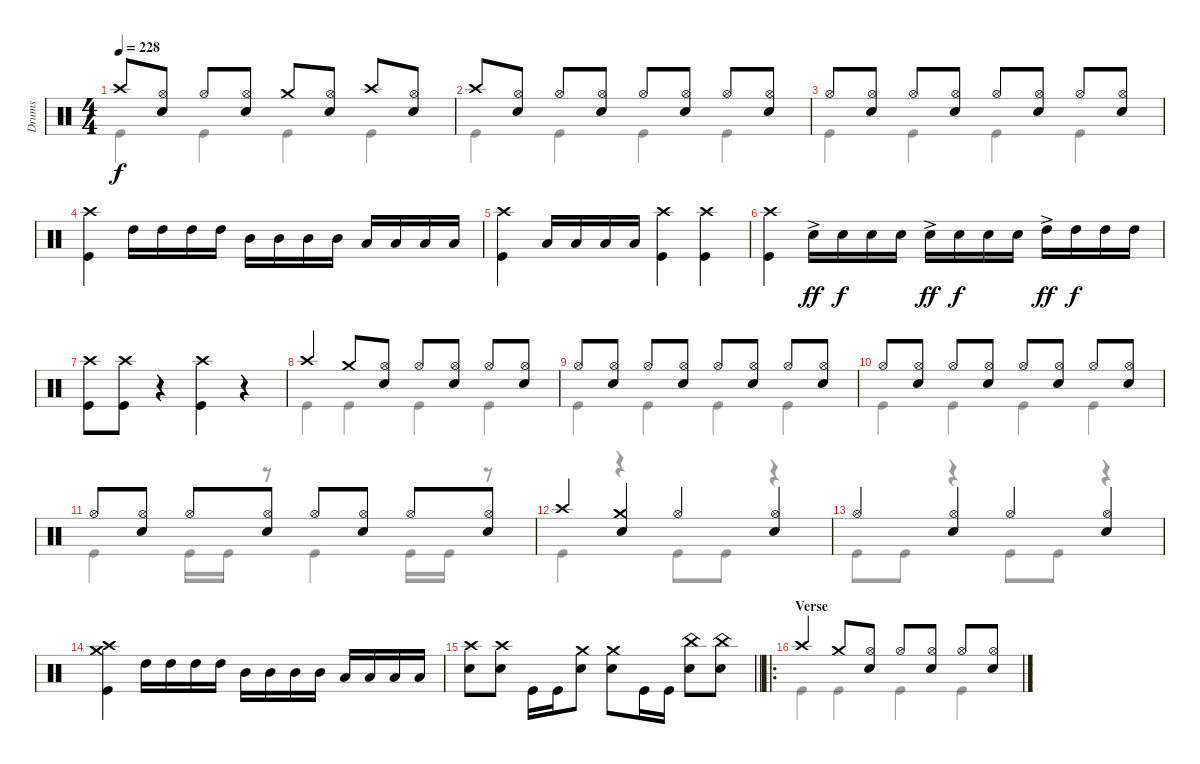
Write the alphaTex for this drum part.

\track ("Drums" "Drums") {instrument percussion}
\staff {score}
\articulation defaults
\voice
\ts (4 4)
\tempo 228
\clef neutral
\ks c "Crash high (hit)".8{dy f}
("Hi-Hat (open)" "Snare (hit) 2").8 "Hi-Hat (open)".8 ("Hi-Hat (open)" "Snare (hit) 2").8 "Crash medium (hit)".8 ("Hi-Hat (open)" "Snare (hit) 2").8 "Crash high (hit)".8 ("Hi-Hat (open)" "Snare (hit) 2").8 |
"Crash high (hit)".8 ("Hi-Hat (open)" "Snare (hit) 2").8 "Hi-Hat (open)".8 ("Hi-Hat (open)" "Snare (hit) 2").8 "Hi-Hat (open)".8 ("Hi-Hat (open)" "Snare (hit) 2").8 "Hi-Hat (open)".8 ("Hi-Hat (open)" "Snare (hit) 2").8 |
"Hi-Hat (open)".8 ("Hi-Hat (open)" "Snare (hit) 2").8 "Hi-Hat (open)".8 ("Hi-Hat (open)" "Snare (hit) 2").8 "Hi-Hat (open)".8 ("Hi-Hat (open)" "Snare (hit) 2").8 "Hi-Hat (open)".8 ("Hi-Hat (open)" "Snare (hit) 2").8 |
("Crash high (hit)" "Kick (hit)").4 "High Tom (hit)".16 "High Tom (hit)".16 "High Tom (hit)".16 "High Tom (hit)".16 "Mid Tom (hit)".16 "Mid Tom (hit)".16 "Mid Tom (hit)".16 "Mid Tom (hit)".16 "Low Floor Tom (hit)".16 "Low Floor Tom (hit)".16 "Low Floor Tom (hit)".16 "Low Floor Tom (hit)".16 |
("Crash high (hit)" "Kick (hit)").4 "Low Floor Tom (hit)".16 "Low Floor Tom (hit)".16 "Low Floor Tom (hit)".16 "Low Floor Tom (hit)".16 ("Crash high (hit)" "Kick (hit)").4 ("Crash high (hit)" "Kick (hit)").4 |
("Crash high (hit)" "Kick (hit)").4 "Snare (hit) 2"{ac}.16{dy ff} "Snare (hit) 2".16{dy f} "Snare (hit) 2".16 "Snare (hit) 2".16 "Snare (hit) 2"{ac}.16{dy ff} "Snare (hit) 2".16{dy f} "Snare (hit) 2".16 "Snare (hit) 2".16 "High Tom (hit)"{ac}.16{dy ff} "High Tom (hit)".16{dy f} "High Tom (hit)".16 "High Tom (hit)".16 |
("Crash high (hit)" "Kick (hit)").8 ("Crash high (hit)" "Kick (hit)").8 r.4 ("Crash high (hit)" "Kick (hit)").4 r.4 |
"Crash high (hit)".4 "Crash medium (hit)".8 ("Hi-Hat (open)" "Snare (hit) 2").8 "Hi-Hat (open)".8 ("Hi-Hat (open)" "Snare (hit) 2").8 "Hi-Hat (open)".8 ("Hi-Hat (open)" "Snare (hit) 2").8 |
"Hi-Hat (open)".8 ("Hi-Hat (open)" "Snare (hit) 2").8 "Hi-Hat (open)".8 ("Hi-Hat (open)" "Snare (hit) 2").8 "Hi-Hat (open)".8 ("Hi-Hat (open)" "Snare (hit) 2").8 "Hi-Hat (open)".8 ("Hi-Hat (open)" "Snare (hit) 2").8 |
"Hi-Hat (open)".8 ("Hi-Hat (open)" "Snare (hit) 2").8 "Hi-Hat (open)".8 ("Hi-Hat (open)" "Snare (hit) 2").8 "Hi-Hat (open)".8 ("Hi-Hat (open)" "Snare (hit) 2").8 "Hi-Hat (open)".8 ("Hi-Hat (open)" "Snare (hit) 2").8 |
"Hi-Hat (open)".8 ("Hi-Hat (open)" "Snare (hit) 2").8 "Hi-Hat (open)".8 ("Hi-Hat (open)" "Snare (hit) 2").8 "Hi-Hat (open)".8 ("Hi-Hat (open)" "Snare (hit) 2").8 "Hi-Hat (open)".8 ("Hi-Hat (open)" "Snare (hit) 2").8 |
"Crash high (hit)".4 ("Crash medium (hit)" "Snare (hit) 2").4 "Hi-Hat (open)".4 ("Hi-Hat (open)" "Snare (hit) 2").4 |
"Hi-Hat (open)".4 ("Hi-Hat (open)" "Snare (hit) 2").4 "Hi-Hat (open)".4 ("Hi-Hat (open)" "Snare (hit) 2").4 |
("Crash high (hit)" "Crash medium (hit)" "Kick (hit)").4 "High Tom (hit)".16 "High Tom (hit)".16 "High Tom (hit)".16 "High Tom (hit)".16 "Mid Tom (hit)".16 "Mid Tom (hit)".16 "Mid Tom (hit)".16 "Mid Tom (hit)".16 "Low Floor Tom (hit)".16 "Low Floor Tom (hit)".16 "Low Floor Tom (hit)".16 "Low Floor Tom (hit)".16 |
\barLineRight lightlight
("Crash high (hit)" "Snare (hit) 2").8 ("Crash high (hit)" "Snare (hit) 2").8 "Kick (hit)".16 "Kick (hit)".16 ("Crash medium (hit)" "Snare (hit) 2").8 ("Crash medium (hit)" "Snare (hit) 2").8 "Kick (hit)".16 "Kick (hit)".16 ("China (hit)" "Snare (hit) 2").8 ("China (hit)" "Snare (hit) 2").8 |
\ro
\section ("" "Verse")
"Crash high (hit)".4 "Crash medium (hit)".8 ("Hi-Hat (open)" "Snare (hit) 2").8 "Hi-Hat (open)".8 ("Hi-Hat (open)" "Snare (hit) 2").8 "Hi-Hat (open)".8 ("Hi-Hat (open)" "Snare (hit) 2").8
\voice
\clef neutral
\ottava regular
\simile none
\ks c "Kick (hit)".4{dy f} "Kick (hit)".4 "Kick (hit)".4 "Kick (hit)".4
|
"Kick (hit)".4 "Kick (hit)".4 "Kick (hit)".4 "Kick (hit)".4 |
"Kick (hit)".4 "Kick (hit)".4 "Kick (hit)".4 "Kick (hit)".4 |
|
|
|
|
"Kick (hit)".4 "Kick (hit)".4 "Kick (hit)".4 "Kick (hit)".4 |
"Kick (hit)".4 "Kick (hit)".4 "Kick (hit)".4 "Kick (hit)".4 |
"Kick (hit)".4 "Kick (hit)".4 "Kick (hit)".4 "Kick (hit)".4 |
"Kick (hit)".4 "Kick (hit)".16 "Kick (hit)".16 r.8 "Kick (hit)".4 "Kick (hit)".16 "Kick (hit)".16 r.8 |
"Kick (hit)".4 r.4 "Kick (hit)".8 "Kick (hit)".8 r.4 |
"Kick (hit)".8 "Kick (hit)".8 r.4 "Kick (hit)".8 "Kick (hit)".8 r.4 |
|
\barLineRight lightlight
|
"Kick (hit)".4 "Kick (hit)".4 "Kick (hit)".4 "Kick (hit)".4
